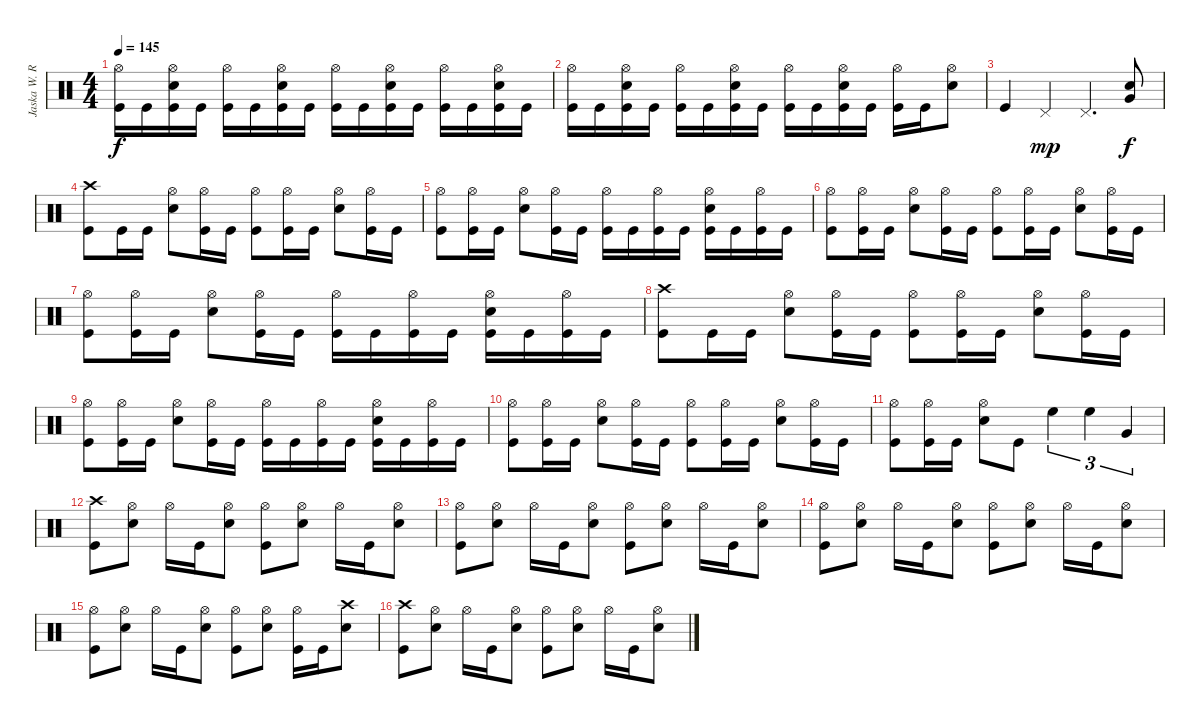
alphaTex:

\track ("Jaska W. Raatikainen" "Jaska W. R") {instrument percussion}
\staff {score}
\articulation defaults
\ts (4 4)
\tempo 145
\clef neutral
\ks c
("Hi-Hat (open)" "Kick (hit)").16{dy f} "Kick (hit)".16 ("Hi-Hat (open)" "Snare (hit) 2" "Kick (hit)").16 "Kick (hit)".16 ("Hi-Hat (open)" "Kick (hit)").16 "Kick (hit)".16 ("Hi-Hat (open)" "Snare (hit) 2" "Kick (hit)").16 "Kick (hit)".16 ("Hi-Hat (open)" "Kick (hit)").16 "Kick (hit)".16 ("Hi-Hat (open)" "Snare (hit) 2" "Kick (hit)").16 "Kick (hit)".16 ("Hi-Hat (open)" "Kick (hit)").16 "Kick (hit)".16 ("Hi-Hat (open)" "Snare (hit) 2" "Kick (hit)").16 "Kick (hit)".16 |
("Hi-Hat (open)" "Kick (hit)").16 "Kick (hit)".16 ("Hi-Hat (open)" "Snare (hit) 2" "Kick (hit)").16 "Kick (hit)".16 ("Hi-Hat (open)" "Kick (hit)").16 "Kick (hit)".16 ("Hi-Hat (open)" "Snare (hit) 2" "Kick (hit)").16 "Kick (hit)".16 ("Hi-Hat (open)" "Kick (hit)").16 "Kick (hit)".16 ("Hi-Hat (open)" "Snare (hit) 2" "Kick (hit)").16 "Kick (hit)".16 ("Hi-Hat (open)" "Kick (hit)").16 "Kick (hit)".16 ("Hi-Hat (open)" "Snare (hit) 2").8 |
"Kick (hit)".4 "Pedal Hi-Hat (hit)".4{dy mp} "Pedal Hi-Hat (hit)".4{d} ("Snare (hit) 2" "Very Low Tom (hit)").8{dy f} |
("Crash high (hit)" "Kick (hit)").8 "Kick (hit)".16 "Kick (hit)".16 ("Hi-Hat (open)" "Snare (hit) 2").8 ("Hi-Hat (open)" "Kick (hit)").16 "Kick (hit)".16 ("Hi-Hat (open)" "Kick (hit)").8 ("Hi-Hat (open)" "Kick (hit)").16 "Kick (hit)".16 ("Hi-Hat (open)" "Snare (hit) 2").8 ("Hi-Hat (open)" "Kick (hit)").16 "Kick (hit)".16 |
("Hi-Hat (open)" "Kick (hit)").8 ("Hi-Hat (open)" "Kick (hit)").16 "Kick (hit)".16 ("Hi-Hat (open)" "Snare (hit) 2").8 ("Hi-Hat (open)" "Kick (hit)").16 "Kick (hit)".16 ("Hi-Hat (open)" "Kick (hit)").16 "Kick (hit)".16 ("Hi-Hat (open)" "Kick (hit)").16 "Kick (hit)".16 ("Hi-Hat (open)" "Snare (hit) 2" "Kick (hit)").16 "Kick (hit)".16 ("Hi-Hat (open)" "Kick (hit)").16 "Kick (hit)".16 |
("Hi-Hat (open)" "Kick (hit)").8 ("Hi-Hat (open)" "Kick (hit)").16 "Kick (hit)".16 ("Hi-Hat (open)" "Snare (hit) 2").8 ("Hi-Hat (open)" "Kick (hit)").16 "Kick (hit)".16 ("Hi-Hat (open)" "Kick (hit)").8 ("Hi-Hat (open)" "Kick (hit)").16 "Kick (hit)".16 ("Hi-Hat (open)" "Snare (hit) 2").8 ("Hi-Hat (open)" "Kick (hit)").16 "Kick (hit)".16 |
("Hi-Hat (open)" "Kick (hit)").8 ("Hi-Hat (open)" "Kick (hit)").16 "Kick (hit)".16 ("Hi-Hat (open)" "Snare (hit) 2").8 ("Hi-Hat (open)" "Kick (hit)").16 "Kick (hit)".16 ("Hi-Hat (open)" "Kick (hit)").16 "Kick (hit)".16 ("Hi-Hat (open)" "Kick (hit)").16 "Kick (hit)".16 ("Hi-Hat (open)" "Snare (hit) 2" "Kick (hit)").16 "Kick (hit)".16 ("Hi-Hat (open)" "Kick (hit)").16 "Kick (hit)".16 |
("Crash high (hit)" "Kick (hit)").8 "Kick (hit)".16 "Kick (hit)".16 ("Hi-Hat (open)" "Snare (hit) 2").8 ("Hi-Hat (open)" "Kick (hit)").16 "Kick (hit)".16 ("Hi-Hat (open)" "Kick (hit)").8 ("Hi-Hat (open)" "Kick (hit)").16 "Kick (hit)".16 ("Hi-Hat (open)" "Snare (hit) 2").8 ("Hi-Hat (open)" "Kick (hit)").16 "Kick (hit)".16 |
("Hi-Hat (open)" "Kick (hit)").8 ("Hi-Hat (open)" "Kick (hit)").16 "Kick (hit)".16 ("Hi-Hat (open)" "Snare (hit) 2").8 ("Hi-Hat (open)" "Kick (hit)").16 "Kick (hit)".16 ("Hi-Hat (open)" "Kick (hit)").16 "Kick (hit)".16 ("Hi-Hat (open)" "Kick (hit)").16 "Kick (hit)".16 ("Hi-Hat (open)" "Snare (hit) 2" "Kick (hit)").16 "Kick (hit)".16 ("Hi-Hat (open)" "Kick (hit)").16 "Kick (hit)".16 |
("Hi-Hat (open)" "Kick (hit)").8 ("Hi-Hat (open)" "Kick (hit)").16 "Kick (hit)".16 ("Hi-Hat (open)" "Snare (hit) 2").8 ("Hi-Hat (open)" "Kick (hit)").16 "Kick (hit)".16 ("Hi-Hat (open)" "Kick (hit)").8 ("Hi-Hat (open)" "Kick (hit)").16 "Kick (hit)".16 ("Hi-Hat (open)" "Snare (hit) 2").8 ("Hi-Hat (open)" "Kick (hit)").16 "Kick (hit)".16 |
("Hi-Hat (open)" "Kick (hit)").8 ("Hi-Hat (open)" "Kick (hit)").16 "Kick (hit)".16 ("Hi-Hat (open)" "Snare (hit) 2").8 "Kick (hit)".8 "High Floor Tom (hit)".4{tu (3 2)} "High Floor Tom (hit)".4{tu (3 2)} "Very Low Tom (hit)".4{tu (3 2)} |
("Crash high (hit)" "Kick (hit)").8 ("Hi-Hat (open)" "Snare (hit) 2").8 "Hi-Hat (open)".16 "Kick (hit)".16 ("Hi-Hat (open)" "Snare (hit) 2").8 ("Hi-Hat (open)" "Kick (hit)").8 ("Hi-Hat (open)" "Snare (hit) 2").8 "Hi-Hat (open)".16 "Kick (hit)".16 ("Hi-Hat (open)" "Snare (hit) 2").8 |
("Hi-Hat (open)" "Kick (hit)").8 ("Hi-Hat (open)" "Snare (hit) 2").8 "Hi-Hat (open)".16 "Kick (hit)".16 ("Hi-Hat (open)" "Snare (hit) 2").8 ("Hi-Hat (open)" "Kick (hit)").8 ("Hi-Hat (open)" "Snare (hit) 2").8 "Hi-Hat (open)".16 "Kick (hit)".16 ("Hi-Hat (open)" "Snare (hit) 2").8 |
("Hi-Hat (open)" "Kick (hit)").8 ("Hi-Hat (open)" "Snare (hit) 2").8 "Hi-Hat (open)".16 "Kick (hit)".16 ("Hi-Hat (open)" "Snare (hit) 2").8 ("Hi-Hat (open)" "Kick (hit)").8 ("Hi-Hat (open)" "Snare (hit) 2").8 "Hi-Hat (open)".16 "Kick (hit)".16 ("Hi-Hat (open)" "Snare (hit) 2").8 |
("Hi-Hat (open)" "Kick (hit)").8 ("Hi-Hat (open)" "Snare (hit) 2").8 "Hi-Hat (open)".16 "Kick (hit)".16 ("Hi-Hat (open)" "Snare (hit) 2").8 ("Hi-Hat (open)" "Kick (hit)").8 ("Hi-Hat (open)" "Snare (hit) 2").8 ("Hi-Hat (open)" "Kick (hit)").16 "Kick (hit)".16 ("Crash high (hit)" "Snare (hit) 2").8 |
("Crash high (hit)" "Kick (hit)").8 ("Hi-Hat (open)" "Snare (hit) 2").8 "Hi-Hat (open)".16 "Kick (hit)".16 ("Hi-Hat (open)" "Snare (hit) 2").8 ("Hi-Hat (open)" "Kick (hit)").8 ("Hi-Hat (open)" "Snare (hit) 2").8 "Hi-Hat (open)".16 "Kick (hit)".16 ("Hi-Hat (open)" "Snare (hit) 2").8
